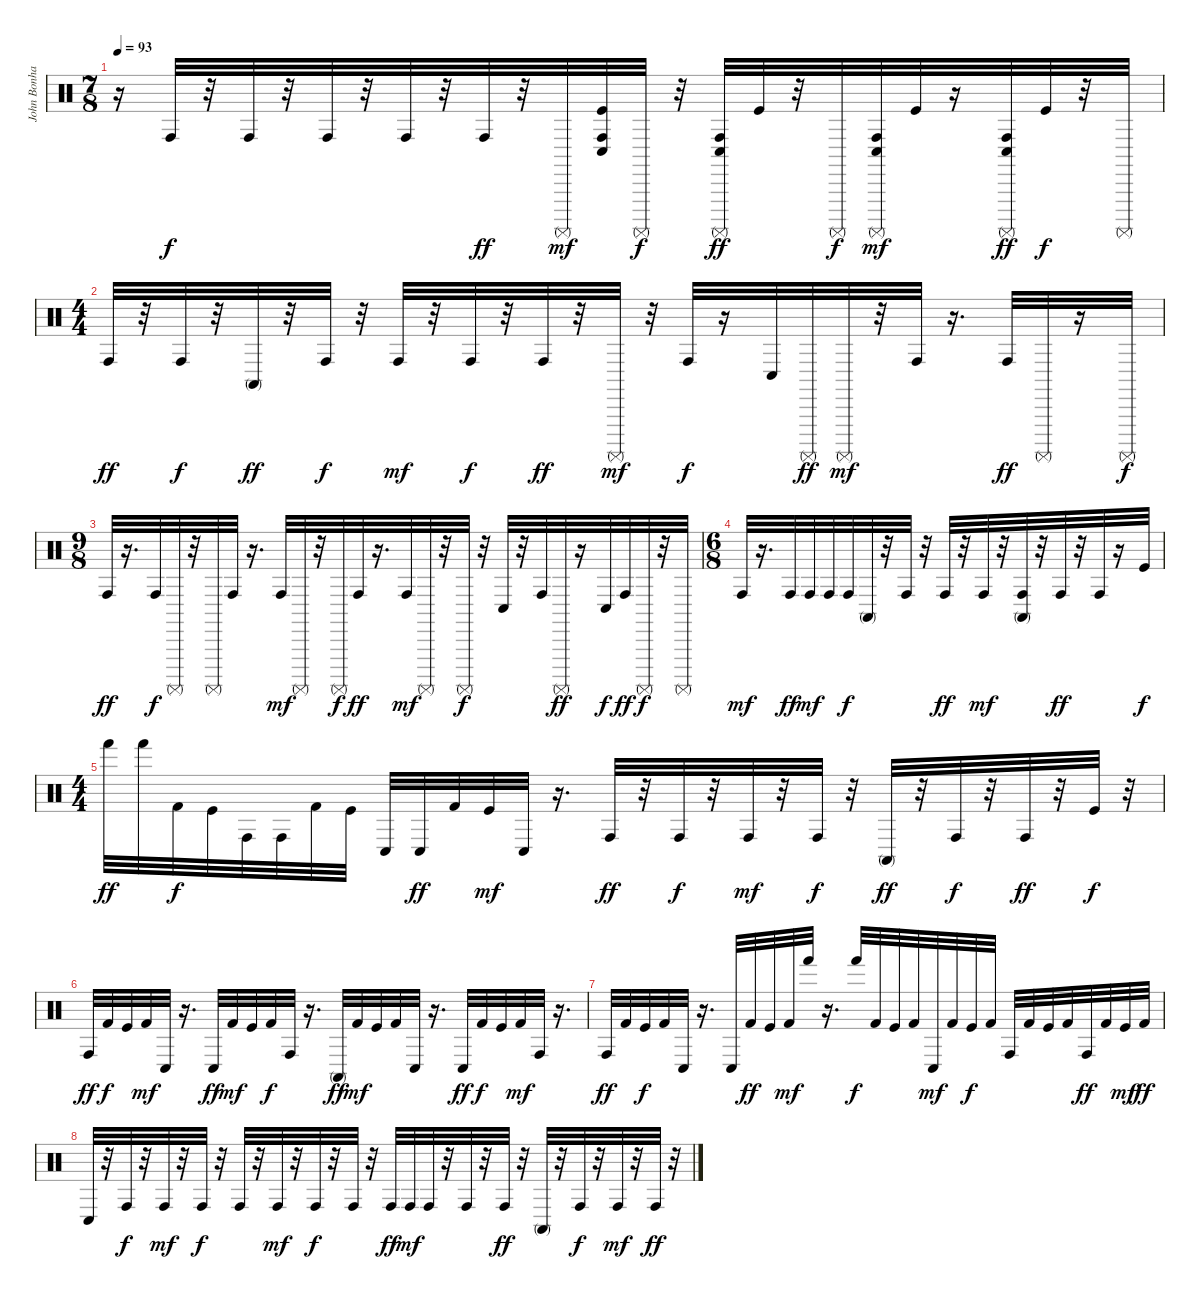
\track ("John Bonham" "John Bonha") {instrument percussion}
\staff {score}
\articulation defaults
\ts (7 8)
\tempo 93
\clef neutral
\ks c
r.16{dy ff} "Conga high (hit)".32{dy f} r.32 "Conga high (hit)".32 r.32 "Conga high (hit)".32 r.32 "Conga high (hit)".32 r.32 "Conga high (hit)".32{dy ff} r.32 "Surdo (mute)".32{dy mf} ("Kick (hit)" "Conga low (hit)" "Conga high (hit)").32 "Surdo (mute)".32{dy f} r.32 ("Conga high (hit)" "Conga low (hit)" "Surdo (mute)").32{dy ff} "Kick (hit)".32 r.32 "Surdo (mute)".32{dy f} ("Surdo (mute)" "Conga high (hit)" "Conga low (hit)").32{dy mf} "Kick (hit)".32 r.16 ("Conga high (hit)" "Conga low (hit)" "Surdo (mute)").32{dy ff} "Kick (hit)".32{dy f} r.32 "Surdo (mute)".32 |
\ts (4 4)
"Conga high (hit)".32{dy ff} r.32 "Conga high (hit)".32{dy f} r.32 "Conga high (mute)".32{dy ff} r.32 "Conga high (hit)".32{dy f} r.32 "Conga high (hit)".32{dy mf} r.32 "Conga high (hit)".32{dy f} r.32 "Conga high (hit)".32{dy ff} r.32 "Surdo (mute)".32{dy mf} r.32 "Conga high (hit)".32{dy f} r.16 "Conga low (hit)".32 "Surdo (mute)".32{dy ff} "Surdo (mute)".32{dy mf} r.32 "Conga high (hit)".32 r.16{d} "Conga high (hit)".32{dy ff} "Surdo (mute)".32 r.16 "Surdo (mute)".32{dy f} |
\ts (9 8)
"Conga high (hit)".32{dy ff} r.16{d} "Conga high (hit)".32{dy f} "Surdo (mute)".32 r.32 "Surdo (mute)".32 "Conga high (hit)".32 r.16{d} "Conga high (hit)".32{dy mf} "Surdo (mute)".32 r.32 "Surdo (mute)".32{dy f} "Conga high (hit)".32{dy ff} r.16{d} "Conga high (hit)".32{dy mf} "Surdo (mute)".32 r.32 "Surdo (mute)".32{dy f} r.32 "Conga low (hit)".32 r.32 "Conga high (hit)".32 "Surdo (mute)".32{dy ff} r.16 "Conga low (hit)".32{dy f} "Conga high (hit)".32{dy ff} "Surdo (mute)".32{dy f} r.32 "Surdo (mute)".32 |
\ts (6 8)
"Conga high (hit)".32{dy mf} r.16{d} "Conga high (hit)".32{dy ff} "Conga high (hit)".32{dy mf} "Conga high (hit)".32 "Conga high (hit)".32{dy f} "Conga high (mute)".32 r.32 "Conga high (hit)".32 r.32 "Conga high (hit)".32{dy ff} r.32 "Conga high (hit)".32{dy mf} r.32 ("Conga high (mute)" "Conga high (hit)").32 r.32 "Conga high (hit)".32{dy ff} r.32 "Conga high (hit)".32 r.16 "Kick (hit)".32{dy f} |
\ts (4 4)
"Hand (hit)".32{dy ff} "Hand (hit)".32 "Kick (hit) 2".32{dy f} "Kick (hit)".32 "Conga high (hit)".32 "Conga high (hit)".32 "Kick (hit) 2".32 "Kick (hit)".32 "Conga low (hit)".32 "Conga low (hit)".32{dy ff} "Kick (hit) 2".32 "Kick (hit)".32{dy mf} "Conga low (hit)".32 r.16{d} "Conga high (hit)".32{dy ff} r.32 "Conga high (hit)".32{dy f} r.32 "Conga high (hit)".32{dy mf} r.32 "Conga high (hit)".32{dy f} r.32 "Conga high (mute)".32{dy ff} r.32 "Conga high (hit)".32{dy f} r.32 "Conga high (hit)".32{dy ff} r.32 "Kick (hit)".32{dy f} r.32 |
"Conga high (hit)".32{dy ff} "Kick (hit) 2".32{dy f} "Kick (hit)".32 "Kick (hit) 2".32{dy mf} "Conga low (hit)".32 r.16{d} "Conga low (hit)".32{dy ff} "Kick (hit) 2".32{dy mf} "Kick (hit)".32 "Kick (hit) 2".32{dy f} "Conga high (hit)".32 r.16{d} "Conga high (mute)".32{dy ff} "Kick (hit) 2".32{dy mf} "Kick (hit)".32 "Kick (hit) 2".32 "Conga low (hit)".32 r.16{d} "Conga low (hit)".32{dy ff} "Kick (hit) 2".32{dy f} "Kick (hit)".32 "Kick (hit) 2".32{dy mf} "Conga high (hit)".32 r.16{d} |
"Conga high (hit)".32{dy ff} "Kick (hit) 2".32 "Kick (hit)".32{dy f} "Kick (hit) 2".32 "Conga low (hit)".32 r.16{d} "Conga low (hit)".32 "Kick (hit) 2".32{dy ff} "Kick (hit)".32 "Kick (hit) 2".32{dy mf} "Hand (hit)".32 r.16{d} "Hand (hit)".32{dy f} "Kick (hit) 2".32 "Kick (hit)".32 "Kick (hit) 2".32 "Conga low (hit)".32{dy mf} "Kick (hit) 2".32 "Kick (hit)".32{dy f} "Kick (hit) 2".32 "Conga high (hit)".32 "Kick (hit) 2".32 "Kick (hit)".32 "Kick (hit) 2".32 "Conga high (hit)".32{dy ff} "Kick (hit) 2".32 "Kick (hit)".32{dy mf} "Kick (hit) 2".32{dy ff} |
"Conga low (hit)".32 r.32 "Conga high (hit)".32{dy f} r.32 "Conga high (hit)".32{dy mf} r.32 "Conga high (hit)".32{dy f} r.32 "Conga high (hit)".32 r.32 "Conga high (hit)".32{dy mf} r.32 "Conga high (hit)".32{dy f} r.32 "Conga high (hit)".32 r.32 "Conga high (hit)".32{dy ff} "Conga high (hit)".32{dy mf} "Conga high (hit)".32 r.32 "Conga high (hit)".32 r.32 "Conga high (hit)".32{dy ff} r.32 "Conga high (mute)".32 r.32 "Conga high (hit)".32{dy f} r.32 "Conga high (hit)".32{dy mf} r.32 "Conga high (hit)".32{dy ff} r.32
